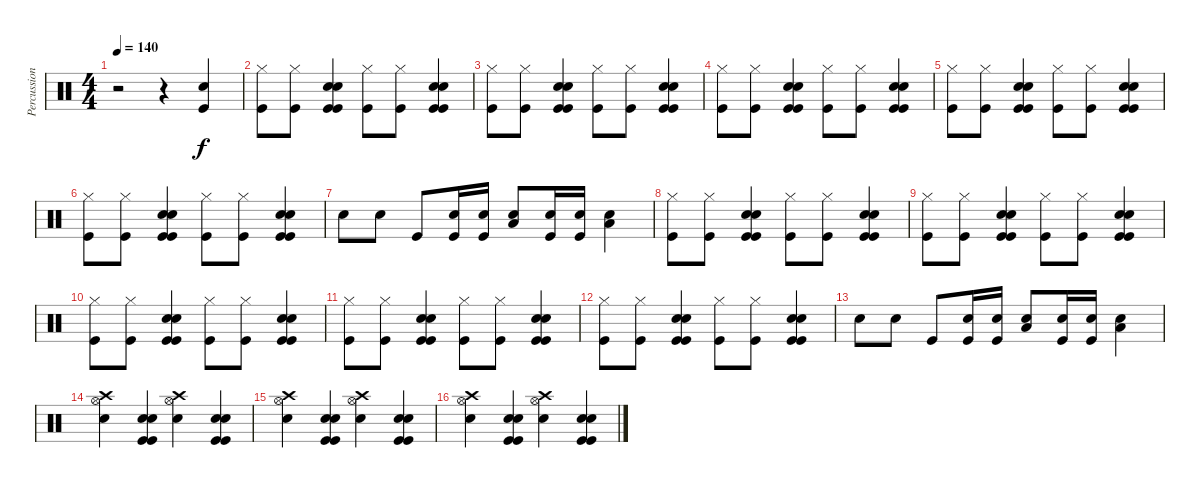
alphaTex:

\track ("Percussions" "Percussion") {instrument percussion}
\staff {score}
\articulation defaults
\ts (4 4)
\tempo 140
\clef neutral
\ks c
r.2{dy f} r.4 ("Kick (hit)" "Electric Snare (hit)").4 |
("Kick (hit)" "Hi-Hat (closed)").8 ("Kick (hit)" "Hi-Hat (closed)").8 ("Kick (hit)" "Electric Snare (hit)" "Kick (hit)" "Electric Snare (hit)").4 ("Kick (hit)" "Hi-Hat (closed)").8 ("Kick (hit)" "Hi-Hat (closed)").8 ("Kick (hit)" "Electric Snare (hit)" "Kick (hit)" "Electric Snare (hit)").4 |
("Kick (hit)" "Hi-Hat (closed)").8 ("Kick (hit)" "Hi-Hat (closed)").8 ("Kick (hit)" "Electric Snare (hit)" "Kick (hit)" "Electric Snare (hit)").4 ("Kick (hit)" "Hi-Hat (closed)").8 ("Kick (hit)" "Hi-Hat (closed)").8 ("Kick (hit)" "Electric Snare (hit)" "Kick (hit)" "Electric Snare (hit)").4 |
("Kick (hit)" "Hi-Hat (closed)").8 ("Kick (hit)" "Hi-Hat (closed)").8 ("Kick (hit)" "Electric Snare (hit)" "Kick (hit)" "Electric Snare (hit)").4 ("Kick (hit)" "Hi-Hat (closed)").8 ("Kick (hit)" "Hi-Hat (closed)").8 ("Kick (hit)" "Electric Snare (hit)" "Kick (hit)" "Electric Snare (hit)").4 |
("Kick (hit)" "Hi-Hat (closed)").8 ("Kick (hit)" "Hi-Hat (closed)").8 ("Kick (hit)" "Electric Snare (hit)" "Kick (hit)" "Electric Snare (hit)").4 ("Kick (hit)" "Hi-Hat (closed)").8 ("Kick (hit)" "Hi-Hat (closed)").8 ("Kick (hit)" "Electric Snare (hit)" "Kick (hit)" "Electric Snare (hit)").4 |
("Kick (hit)" "Hi-Hat (closed)").8 ("Kick (hit)" "Hi-Hat (closed)").8 ("Kick (hit)" "Electric Snare (hit)" "Kick (hit)" "Electric Snare (hit)").4 ("Kick (hit)" "Hi-Hat (closed)").8 ("Kick (hit)" "Hi-Hat (closed)").8 ("Kick (hit)" "Electric Snare (hit)" "Kick (hit)" "Electric Snare (hit)").4 |
"Electric Snare (hit)".8 "Electric Snare (hit)".8 "Kick (hit)".8 ("Electric Snare (hit)" "Kick (hit)").16 ("Electric Snare (hit)" "Kick (hit)").16 ("Electric Snare (hit)" "Low Tom (hit)").8 ("Electric Snare (hit)" "Kick (hit)").16 ("Electric Snare (hit)" "Kick (hit)").16 ("Electric Snare (hit)" "Low Tom (hit)").4 |
("Kick (hit)" "Hi-Hat (closed)").8 ("Kick (hit)" "Hi-Hat (closed)").8 ("Kick (hit)" "Electric Snare (hit)" "Kick (hit)" "Electric Snare (hit)").4 ("Kick (hit)" "Hi-Hat (closed)").8 ("Kick (hit)" "Hi-Hat (closed)").8 ("Kick (hit)" "Electric Snare (hit)" "Kick (hit)" "Electric Snare (hit)").4 |
("Kick (hit)" "Hi-Hat (closed)").8 ("Kick (hit)" "Hi-Hat (closed)").8 ("Kick (hit)" "Electric Snare (hit)" "Kick (hit)" "Electric Snare (hit)").4 ("Kick (hit)" "Hi-Hat (closed)").8 ("Kick (hit)" "Hi-Hat (closed)").8 ("Kick (hit)" "Electric Snare (hit)" "Kick (hit)" "Electric Snare (hit)").4 |
("Kick (hit)" "Hi-Hat (closed)").8 ("Kick (hit)" "Hi-Hat (closed)").8 ("Kick (hit)" "Electric Snare (hit)" "Kick (hit)" "Electric Snare (hit)").4 ("Kick (hit)" "Hi-Hat (closed)").8 ("Kick (hit)" "Hi-Hat (closed)").8 ("Kick (hit)" "Electric Snare (hit)" "Kick (hit)" "Electric Snare (hit)").4 |
("Kick (hit)" "Hi-Hat (closed)").8 ("Kick (hit)" "Hi-Hat (closed)").8 ("Kick (hit)" "Electric Snare (hit)" "Kick (hit)" "Electric Snare (hit)").4 ("Kick (hit)" "Hi-Hat (closed)").8 ("Kick (hit)" "Hi-Hat (closed)").8 ("Kick (hit)" "Electric Snare (hit)" "Kick (hit)" "Electric Snare (hit)").4 |
("Kick (hit)" "Hi-Hat (closed)").8 ("Kick (hit)" "Hi-Hat (closed)").8 ("Kick (hit)" "Electric Snare (hit)" "Kick (hit)" "Electric Snare (hit)").4 ("Kick (hit)" "Hi-Hat (closed)").8 ("Kick (hit)" "Hi-Hat (closed)").8 ("Kick (hit)" "Electric Snare (hit)" "Kick (hit)" "Electric Snare (hit)").4 |
"Electric Snare (hit)".8 "Electric Snare (hit)".8 "Kick (hit)".8 ("Electric Snare (hit)" "Kick (hit)").16 ("Electric Snare (hit)" "Kick (hit)").16 ("Electric Snare (hit)" "Low Tom (hit)").8 ("Electric Snare (hit)" "Kick (hit)").16 ("Electric Snare (hit)" "Kick (hit)").16 ("Electric Snare (hit)" "Low Tom (hit)").4 |
("Crash high (hit)" "Snare (hit) 2" "Hi-Hat (open)").4 ("Kick (hit)" "Electric Snare (hit)" "Kick (hit)" "Electric Snare (hit)").4 ("Crash high (hit)" "Snare (hit) 2" "Hi-Hat (open)").4 ("Kick (hit)" "Electric Snare (hit)" "Kick (hit)" "Electric Snare (hit)").4 |
("Crash high (hit)" "Snare (hit) 2" "Hi-Hat (open)").4 ("Kick (hit)" "Electric Snare (hit)" "Kick (hit)" "Electric Snare (hit)").4 ("Crash high (hit)" "Snare (hit) 2" "Hi-Hat (open)").4 ("Kick (hit)" "Electric Snare (hit)" "Kick (hit)" "Electric Snare (hit)").4 |
("Crash high (hit)" "Snare (hit) 2" "Hi-Hat (open)").4 ("Kick (hit)" "Electric Snare (hit)" "Kick (hit)" "Electric Snare (hit)").4 ("Crash high (hit)" "Snare (hit) 2" "Hi-Hat (open)").4 ("Kick (hit)" "Electric Snare (hit)" "Kick (hit)" "Electric Snare (hit)").4
